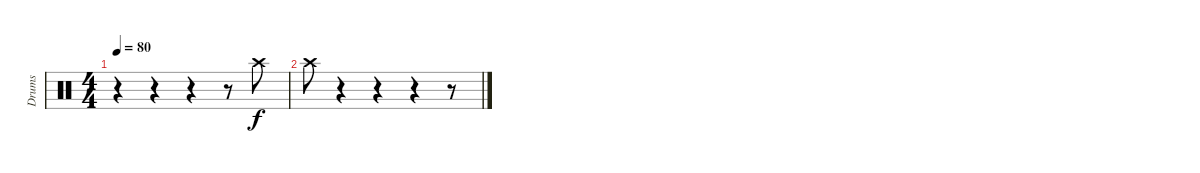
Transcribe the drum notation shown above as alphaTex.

\track ("Drums" "Drums") {instrument percussion}
\staff {score}
\articulation defaults
\ts (4 4)
\tempo 80
\clef neutral
\ks c
r.4{dy f} r.4 r.4 r.8 "Crash high (hit)".8 |
"Crash high (hit)".8 r.4 r.4 r.4 r.8
